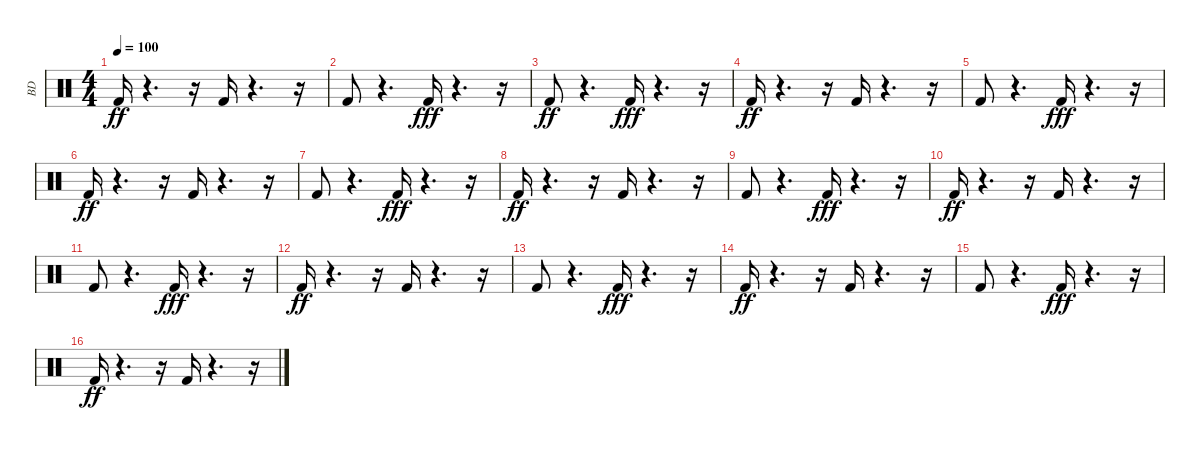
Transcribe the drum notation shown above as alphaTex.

\track ("BD" "BD") {instrument percussion}
\staff {score}
\articulation defaults
\ts (4 4)
\tempo 100
\clef neutral
\ks c "Kick (hit) 2".16{dy ff}
r.4{d} r.16 "Kick (hit) 2".16 r.4{d} r.16 |
"Kick (hit) 2".8 r.4{d} "Kick (hit) 2".16{dy fff} r.4{d} r.16 |
"Kick (hit) 2".8{dy ff} r.4{d} "Kick (hit) 2".16{dy fff} r.4{d} r.16 |
"Kick (hit) 2".16{dy ff} r.4{d} r.16 "Kick (hit) 2".16 r.4{d} r.16 |
"Kick (hit) 2".8 r.4{d} "Kick (hit) 2".16{dy fff} r.4{d} r.16 |
"Kick (hit) 2".16{dy ff} r.4{d} r.16 "Kick (hit) 2".16 r.4{d} r.16 |
"Kick (hit) 2".8 r.4{d} "Kick (hit) 2".16{dy fff} r.4{d} r.16 |
"Kick (hit) 2".16{dy ff} r.4{d} r.16 "Kick (hit) 2".16 r.4{d} r.16 |
"Kick (hit) 2".8 r.4{d} "Kick (hit) 2".16{dy fff} r.4{d} r.16 |
"Kick (hit) 2".16{dy ff} r.4{d} r.16 "Kick (hit) 2".16 r.4{d} r.16 |
"Kick (hit) 2".8 r.4{d} "Kick (hit) 2".16{dy fff} r.4{d} r.16 |
"Kick (hit) 2".16{dy ff} r.4{d} r.16 "Kick (hit) 2".16 r.4{d} r.16 |
"Kick (hit) 2".8 r.4{d} "Kick (hit) 2".16{dy fff} r.4{d} r.16 |
"Kick (hit) 2".16{dy ff} r.4{d} r.16 "Kick (hit) 2".16 r.4{d} r.16 |
"Kick (hit) 2".8 r.4{d} "Kick (hit) 2".16{dy fff} r.4{d} r.16 |
"Kick (hit) 2".16{dy ff} r.4{d} r.16 "Kick (hit) 2".16 r.4{d} r.16
